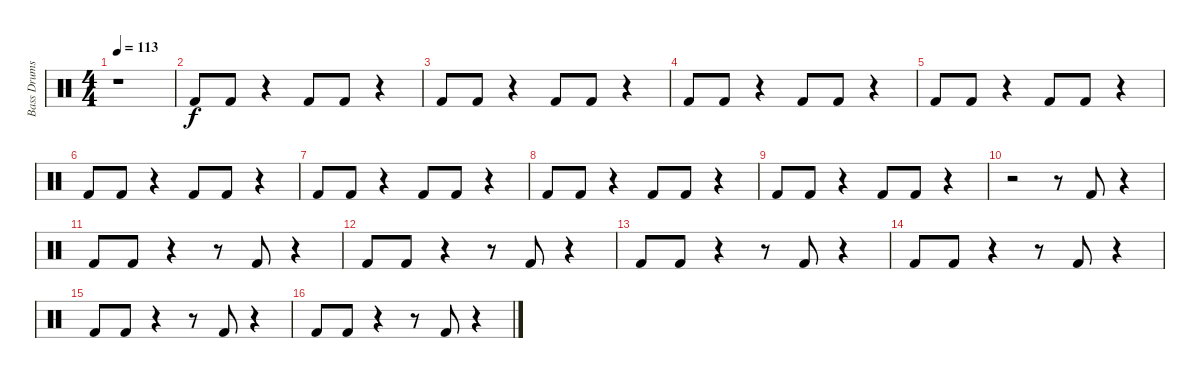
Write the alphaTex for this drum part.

\track ("Bass Drums" "Bass Drums") {instrument percussion}
\staff {score}
\articulation defaults
\ts (4 4)
\tempo 113
\clef neutral
\ks c
r.1{dy f} |
"Kick (hit) 2".8 "Kick (hit) 2".8 r.4 "Kick (hit) 2".8 "Kick (hit) 2".8 r.4 |
"Kick (hit) 2".8 "Kick (hit) 2".8 r.4 "Kick (hit) 2".8 "Kick (hit) 2".8 r.4 |
"Kick (hit) 2".8 "Kick (hit) 2".8 r.4 "Kick (hit) 2".8 "Kick (hit) 2".8 r.4 |
"Kick (hit) 2".8 "Kick (hit) 2".8 r.4 "Kick (hit) 2".8 "Kick (hit) 2".8 r.4 |
"Kick (hit) 2".8 "Kick (hit) 2".8 r.4 "Kick (hit) 2".8 "Kick (hit) 2".8 r.4 |
"Kick (hit) 2".8 "Kick (hit) 2".8 r.4 "Kick (hit) 2".8 "Kick (hit) 2".8 r.4 |
"Kick (hit) 2".8 "Kick (hit) 2".8 r.4 "Kick (hit) 2".8 "Kick (hit) 2".8 r.4 |
"Kick (hit) 2".8 "Kick (hit) 2".8 r.4 "Kick (hit) 2".8 "Kick (hit) 2".8 r.4 |
r.2 r.8 "Kick (hit) 2".8 r.4 |
"Kick (hit) 2".8 "Kick (hit) 2".8 r.4 r.8 "Kick (hit) 2".8 r.4 |
"Kick (hit) 2".8 "Kick (hit) 2".8 r.4 r.8 "Kick (hit) 2".8 r.4 |
"Kick (hit) 2".8 "Kick (hit) 2".8 r.4 r.8 "Kick (hit) 2".8 r.4 |
"Kick (hit) 2".8 "Kick (hit) 2".8 r.4 r.8 "Kick (hit) 2".8 r.4 |
"Kick (hit) 2".8 "Kick (hit) 2".8 r.4 r.8 "Kick (hit) 2".8 r.4 |
"Kick (hit) 2".8 "Kick (hit) 2".8 r.4 r.8 "Kick (hit) 2".8 r.4
